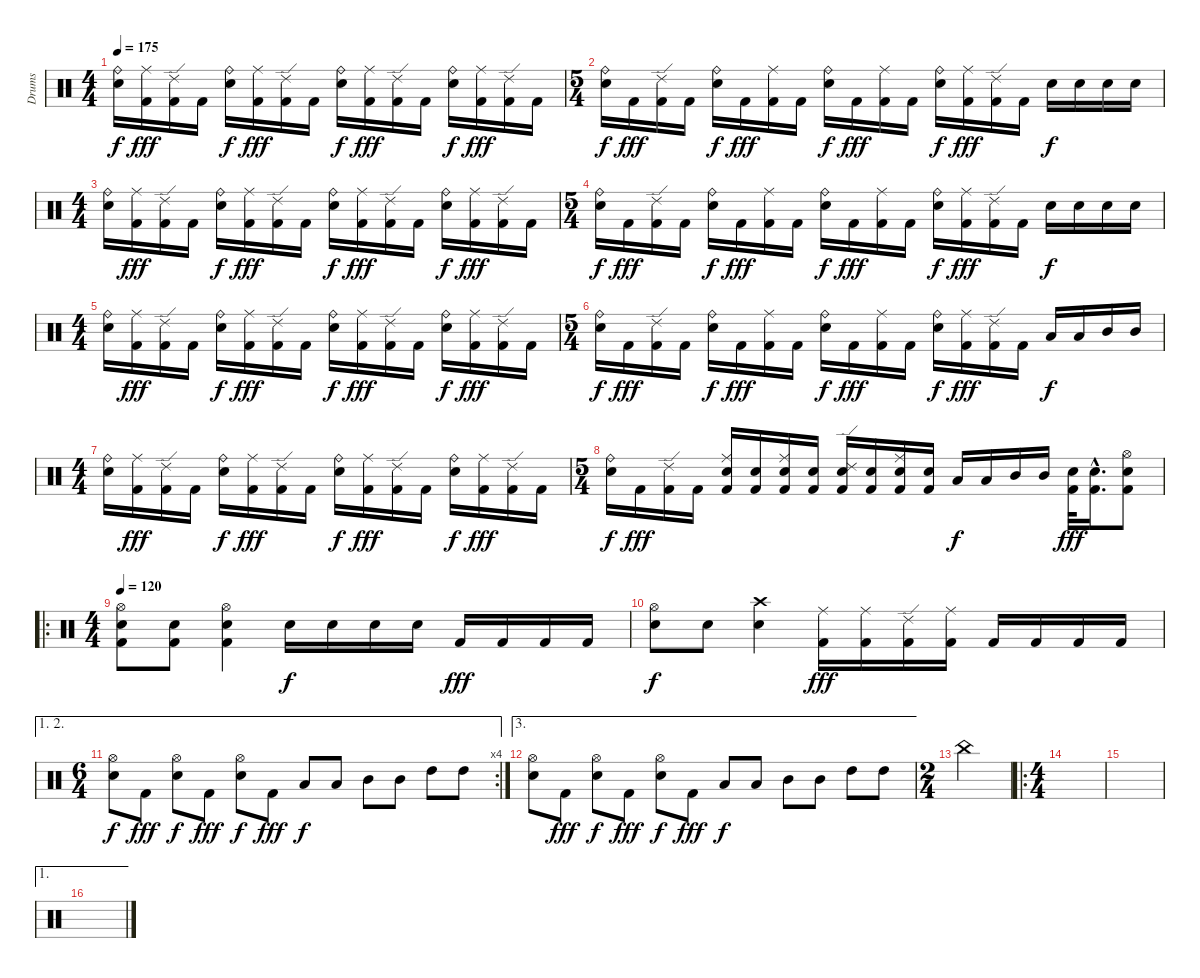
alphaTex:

\track ("Drums" "Drums") {instrument percussion}
\staff {score}
\articulation defaults
\ts (4 4)
\tempo 175
\clef neutral
\ks c
("Ride (bell)" "Electric Snare (hit)").16{dy f} ("Ride (middle)" "Kick (hit) 2").16{dy fff} ("Ride (edge) 2" "Kick (hit) 2").16 "Kick (hit) 2".16 ("Ride (bell)" "Electric Snare (hit)").16{dy f} ("Ride (middle)" "Kick (hit) 2").16{dy fff} ("Ride (edge) 2" "Kick (hit) 2").16 "Kick (hit) 2".16 ("Ride (bell)" "Electric Snare (hit)").16{dy f} ("Ride (middle)" "Kick (hit) 2").16{dy fff} ("Ride (edge) 2" "Kick (hit) 2").16 "Kick (hit) 2".16 ("Ride (bell)" "Electric Snare (hit)").16{dy f} ("Ride (middle)" "Kick (hit) 2").16{dy fff} ("Ride (edge) 2" "Kick (hit) 2").16 "Kick (hit) 2".16 |
\ts (5 4)
("Ride (bell)" "Electric Snare (hit)").16{dy f} "Kick (hit) 2".16{dy fff} ("Ride (edge) 2" "Kick (hit) 2").16 "Kick (hit) 2".16 ("Ride (bell)" "Electric Snare (hit)").16{dy f} "Kick (hit) 2".16{dy fff} ("Ride (middle)" "Kick (hit) 2").16 "Kick (hit) 2".16 ("Ride (bell)" "Electric Snare (hit)").16{dy f} "Kick (hit) 2".16{dy fff} ("Ride (middle)" "Kick (hit) 2").16 "Kick (hit) 2".16 ("Ride (bell)" "Electric Snare (hit)").16{dy f} ("Ride (middle)" "Kick (hit) 2").16{dy fff} ("Ride (edge) 2" "Kick (hit) 2").16 "Kick (hit) 2".16 "Electric Snare (hit)".16{dy f} "Electric Snare (hit)".16 "Electric Snare (hit)".16 "Electric Snare (hit)".16 |
\ts (4 4)
("Ride (bell)" "Electric Snare (hit)").16 ("Ride (middle)" "Kick (hit) 2").16{dy fff} ("Ride (edge) 2" "Kick (hit) 2").16 "Kick (hit) 2".16 ("Ride (bell)" "Electric Snare (hit)").16{dy f} ("Ride (middle)" "Kick (hit) 2").16{dy fff} ("Ride (edge) 2" "Kick (hit) 2").16 "Kick (hit) 2".16 ("Ride (bell)" "Electric Snare (hit)").16{dy f} ("Ride (middle)" "Kick (hit) 2").16{dy fff} ("Ride (edge) 2" "Kick (hit) 2").16 "Kick (hit) 2".16 ("Ride (bell)" "Electric Snare (hit)").16{dy f} ("Ride (middle)" "Kick (hit) 2").16{dy fff} ("Ride (edge) 2" "Kick (hit) 2").16 "Kick (hit) 2".16 |
\ts (5 4)
("Ride (bell)" "Electric Snare (hit)").16{dy f} "Kick (hit) 2".16{dy fff} ("Ride (edge) 2" "Kick (hit) 2").16 "Kick (hit) 2".16 ("Ride (bell)" "Electric Snare (hit)").16{dy f} "Kick (hit) 2".16{dy fff} ("Ride (middle)" "Kick (hit) 2").16 "Kick (hit) 2".16 ("Ride (bell)" "Electric Snare (hit)").16{dy f} "Kick (hit) 2".16{dy fff} ("Ride (middle)" "Kick (hit) 2").16 "Kick (hit) 2".16 ("Ride (bell)" "Electric Snare (hit)").16{dy f} ("Ride (middle)" "Kick (hit) 2").16{dy fff} ("Ride (edge) 2" "Kick (hit) 2").16 "Kick (hit) 2".16 "Electric Snare (hit)".16{dy f} "Electric Snare (hit)".16 "Electric Snare (hit)".16 "Electric Snare (hit)".16 |
\ts (4 4)
("Ride (bell)" "Electric Snare (hit)").16 ("Ride (middle)" "Kick (hit) 2").16{dy fff} ("Ride (edge) 2" "Kick (hit) 2").16 "Kick (hit) 2".16 ("Ride (bell)" "Electric Snare (hit)").16{dy f} ("Ride (middle)" "Kick (hit) 2").16{dy fff} ("Ride (edge) 2" "Kick (hit) 2").16 "Kick (hit) 2".16 ("Ride (bell)" "Electric Snare (hit)").16{dy f} ("Ride (middle)" "Kick (hit) 2").16{dy fff} ("Ride (edge) 2" "Kick (hit) 2").16 "Kick (hit) 2".16 ("Ride (bell)" "Electric Snare (hit)").16{dy f} ("Ride (middle)" "Kick (hit) 2").16{dy fff} ("Ride (edge) 2" "Kick (hit) 2").16 "Kick (hit) 2".16 |
\ts (5 4)
("Ride (bell)" "Electric Snare (hit)").16{dy f} "Kick (hit) 2".16{dy fff} ("Ride (edge) 2" "Kick (hit) 2").16 "Kick (hit) 2".16 ("Ride (bell)" "Electric Snare (hit)").16{dy f} "Kick (hit) 2".16{dy fff} ("Ride (middle)" "Kick (hit) 2").16 "Kick (hit) 2".16 ("Ride (bell)" "Electric Snare (hit)").16{dy f} "Kick (hit) 2".16{dy fff} ("Ride (middle)" "Kick (hit) 2").16 "Kick (hit) 2".16 ("Ride (bell)" "Electric Snare (hit)").16{dy f} ("Ride (middle)" "Kick (hit) 2").16{dy fff} ("Ride (edge) 2" "Kick (hit) 2").16 "Kick (hit) 2".16 "Low Tom (hit)".16{dy f} "Low Tom (hit)".16 "Mid Tom (hit)".16 "Mid Tom (hit)".16 |
\ts (4 4)
("Ride (bell)" "Electric Snare (hit)").16 ("Ride (middle)" "Kick (hit) 2").16{dy fff} ("Ride (edge) 2" "Kick (hit) 2").16 "Kick (hit) 2".16 ("Ride (bell)" "Electric Snare (hit)").16{dy f} ("Ride (middle)" "Kick (hit) 2").16{dy fff} ("Ride (edge) 2" "Kick (hit) 2").16 "Kick (hit) 2".16 ("Ride (bell)" "Electric Snare (hit)").16{dy f} ("Ride (middle)" "Kick (hit) 2").16{dy fff} ("Ride (edge) 2" "Kick (hit) 2").16 "Kick (hit) 2".16 ("Ride (bell)" "Electric Snare (hit)").16{dy f} ("Ride (middle)" "Kick (hit) 2").16{dy fff} ("Ride (edge) 2" "Kick (hit) 2").16 "Kick (hit) 2".16 |
\ts (5 4)
("Ride (bell)" "Electric Snare (hit)").16{dy f} "Kick (hit) 2".16{dy fff} ("Ride (edge) 2" "Kick (hit) 2").16 "Kick (hit) 2".16 ("Ride (middle)" "Electric Snare (hit)" "Kick (hit) 2").16 ("Electric Snare (hit)" "Kick (hit) 2").16 ("Ride (middle)" "Electric Snare (hit)" "Kick (hit) 2").16 ("Electric Snare (hit)" "Kick (hit) 2").16 ("Ride (edge) 2" "Electric Snare (hit)" "Kick (hit) 2").16 ("Electric Snare (hit)" "Kick (hit) 2").16 ("Ride (middle)" "Electric Snare (hit)" "Kick (hit) 2").16 ("Electric Snare (hit)" "Kick (hit) 2").16 "Low Tom (hit)".16{dy f} "Low Tom (hit)".16 "Mid Tom (hit)".16 "Mid Tom (hit)".16 ("Electric Snare (hit)" "Kick (hit) 2").32{dy fff} ("Electric Snare (hit)"{hac} "Kick (hit) 2"{hac}).16{d} ("Hi-Hat (open)" "Electric Snare (hit)" "Kick (hit) 2").8 |
\ro
\ts (4 4)
\tempo 120
("Hi-Hat (open)" "Electric Snare (hit)" "Kick (hit) 2").8 ("Electric Snare (hit)" "Kick (hit) 2").8 ("Hi-Hat (open)" "Electric Snare (hit)" "Kick (hit) 2").4 "Electric Snare (hit)".16{dy f} "Electric Snare (hit)".16 "Electric Snare (hit)".16 "Electric Snare (hit)".16 "Kick (hit) 2".16{dy fff} "Kick (hit) 2".16 "Kick (hit) 2".16 "Kick (hit) 2".16 |
("Hi-Hat (open)" "Electric Snare (hit)").8{dy f} "Electric Snare (hit)".8 ("Crash high (hit)" "Electric Snare (hit)").4 ("Ride (middle)" "Kick (hit) 2").16{dy fff} ("Ride (middle)" "Kick (hit) 2").16 ("Ride (edge) 2" "Kick (hit) 2").16 ("Ride (middle)" "Kick (hit) 2").16 "Kick (hit) 2".16 "Kick (hit) 2".16 "Kick (hit) 2".16 "Kick (hit) 2".16 |
\ae (1 2)
\rc 4
\ts (6 4)
("Hi-Hat (open)" "Electric Snare (hit)").8{dy f} "Kick (hit) 2".8{dy fff} ("Hi-Hat (open)" "Electric Snare (hit)").8{dy f} "Kick (hit) 2".8{dy fff} ("Hi-Hat (open)" "Electric Snare (hit)").8{dy f} "Kick (hit) 2".8{dy fff} "Low Tom (hit)".8{dy f} "Low Tom (hit)".8 "Mid Tom (hit)".8 "Mid Tom (hit)".8 "High Tom (hit)".8 "High Tom (hit)".8 |
\ae 3
("Hi-Hat (open)" "Electric Snare (hit)").8 "Kick (hit) 2".8{dy fff} ("Hi-Hat (open)" "Electric Snare (hit)").8{dy f} "Kick (hit) 2".8{dy fff} ("Hi-Hat (open)" "Electric Snare (hit)").8{dy f} "Kick (hit) 2".8{dy fff} "Low Tom (hit)".8{dy f} "Low Tom (hit)".8 "Mid Tom (hit)".8 "Mid Tom (hit)".8 "High Tom (hit)".8 "High Tom (hit)".8 |
\ts (2 4)
"China (hit)".2 |
\ro
\ts (4 4)
|
|
\ae 1
